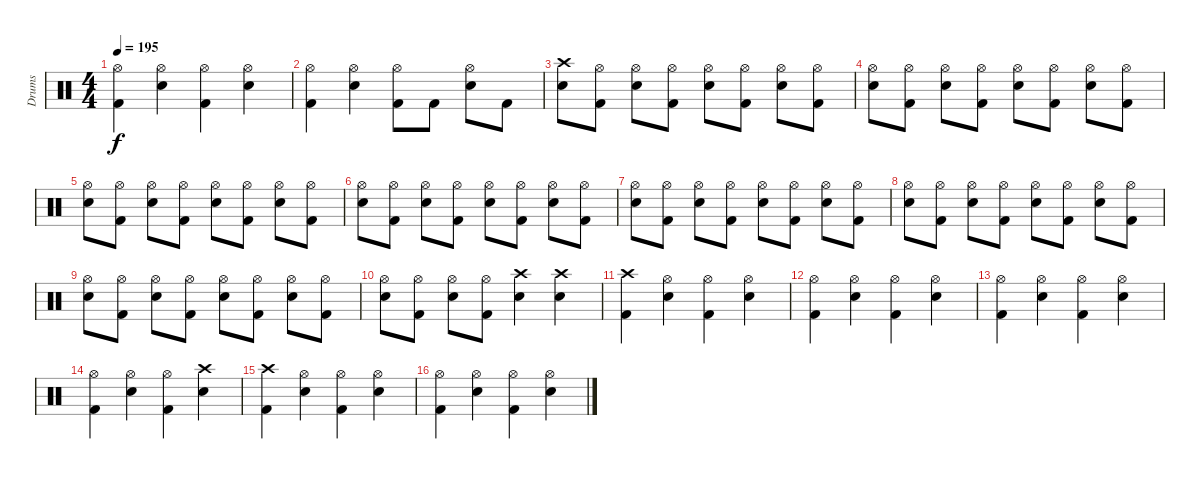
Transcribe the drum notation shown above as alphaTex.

\track ("Drums" "Drums") {instrument percussion}
\staff {score}
\articulation defaults
\ts (4 4)
\tempo 195
\clef neutral
\ks c
("Hi-Hat (open)" "Kick (hit) 2").4{dy f} ("Hi-Hat (open)" "Snare (hit) 2").4 ("Hi-Hat (open)" "Kick (hit) 2").4 ("Hi-Hat (open)" "Snare (hit) 2").4 |
("Hi-Hat (open)" "Kick (hit) 2").4 ("Hi-Hat (open)" "Snare (hit) 2").4 ("Hi-Hat (open)" "Kick (hit) 2").8 "Kick (hit) 2".8 ("Hi-Hat (open)" "Snare (hit) 2").8 "Kick (hit) 2".8 |
("Crash high (hit)" "Snare (hit) 2").8 ("Hi-Hat (open)" "Kick (hit) 2").8 ("Hi-Hat (open)" "Snare (hit) 2").8 ("Hi-Hat (open)" "Kick (hit) 2").8 ("Hi-Hat (open)" "Snare (hit) 2").8 ("Hi-Hat (open)" "Kick (hit) 2").8 ("Hi-Hat (open)" "Snare (hit) 2").8 ("Hi-Hat (open)" "Kick (hit) 2").8 |
("Hi-Hat (open)" "Snare (hit) 2").8 ("Hi-Hat (open)" "Kick (hit) 2").8 ("Hi-Hat (open)" "Snare (hit) 2").8 ("Hi-Hat (open)" "Kick (hit) 2").8 ("Hi-Hat (open)" "Snare (hit) 2").8 ("Hi-Hat (open)" "Kick (hit) 2").8 ("Hi-Hat (open)" "Snare (hit) 2").8 ("Hi-Hat (open)" "Kick (hit) 2").8 |
("Hi-Hat (open)" "Snare (hit) 2").8 ("Hi-Hat (open)" "Kick (hit) 2").8 ("Hi-Hat (open)" "Snare (hit) 2").8 ("Hi-Hat (open)" "Kick (hit) 2").8 ("Hi-Hat (open)" "Snare (hit) 2").8 ("Hi-Hat (open)" "Kick (hit) 2").8 ("Hi-Hat (open)" "Snare (hit) 2").8 ("Hi-Hat (open)" "Kick (hit) 2").8 |
("Hi-Hat (open)" "Snare (hit) 2").8 ("Hi-Hat (open)" "Kick (hit) 2").8 ("Hi-Hat (open)" "Snare (hit) 2").8 ("Hi-Hat (open)" "Kick (hit) 2").8 ("Hi-Hat (open)" "Snare (hit) 2").8 ("Hi-Hat (open)" "Kick (hit) 2").8 ("Hi-Hat (open)" "Snare (hit) 2").8 ("Hi-Hat (open)" "Kick (hit) 2").8 |
("Hi-Hat (open)" "Snare (hit) 2").8 ("Hi-Hat (open)" "Kick (hit) 2").8 ("Hi-Hat (open)" "Snare (hit) 2").8 ("Hi-Hat (open)" "Kick (hit) 2").8 ("Hi-Hat (open)" "Snare (hit) 2").8 ("Hi-Hat (open)" "Kick (hit) 2").8 ("Hi-Hat (open)" "Snare (hit) 2").8 ("Hi-Hat (open)" "Kick (hit) 2").8 |
("Hi-Hat (open)" "Snare (hit) 2").8 ("Hi-Hat (open)" "Kick (hit) 2").8 ("Hi-Hat (open)" "Snare (hit) 2").8 ("Hi-Hat (open)" "Kick (hit) 2").8 ("Hi-Hat (open)" "Snare (hit) 2").8 ("Hi-Hat (open)" "Kick (hit) 2").8 ("Hi-Hat (open)" "Snare (hit) 2").8 ("Hi-Hat (open)" "Kick (hit) 2").8 |
("Hi-Hat (open)" "Snare (hit) 2").8 ("Hi-Hat (open)" "Kick (hit) 2").8 ("Hi-Hat (open)" "Snare (hit) 2").8 ("Hi-Hat (open)" "Kick (hit) 2").8 ("Hi-Hat (open)" "Snare (hit) 2").8 ("Hi-Hat (open)" "Kick (hit) 2").8 ("Hi-Hat (open)" "Snare (hit) 2").8 ("Hi-Hat (open)" "Kick (hit) 2").8 |
("Hi-Hat (open)" "Snare (hit) 2").8 ("Hi-Hat (open)" "Kick (hit) 2").8 ("Hi-Hat (open)" "Snare (hit) 2").8 ("Hi-Hat (open)" "Kick (hit) 2").8 ("Crash high (hit)" "Snare (hit) 2").4 ("Crash high (hit)" "Snare (hit) 2").4 |
("Crash high (hit)" "Kick (hit) 2").4 ("Hi-Hat (open)" "Snare (hit) 2").4 ("Hi-Hat (open)" "Kick (hit) 2").4 ("Hi-Hat (open)" "Snare (hit) 2").4 |
("Hi-Hat (open)" "Kick (hit) 2").4 ("Hi-Hat (open)" "Snare (hit) 2").4 ("Hi-Hat (open)" "Kick (hit) 2").4 ("Hi-Hat (open)" "Snare (hit) 2").4 |
("Hi-Hat (open)" "Kick (hit) 2").4 ("Hi-Hat (open)" "Snare (hit) 2").4 ("Hi-Hat (open)" "Kick (hit) 2").4 ("Hi-Hat (open)" "Snare (hit) 2").4 |
("Hi-Hat (open)" "Kick (hit) 2").4 ("Hi-Hat (open)" "Snare (hit) 2").4 ("Hi-Hat (open)" "Kick (hit) 2").4 ("Crash high (hit)" "Snare (hit) 2").4 |
("Crash high (hit)" "Kick (hit) 2").4 ("Hi-Hat (open)" "Snare (hit) 2").4 ("Hi-Hat (open)" "Kick (hit) 2").4 ("Hi-Hat (open)" "Snare (hit) 2").4 |
("Hi-Hat (open)" "Kick (hit) 2").4 ("Hi-Hat (open)" "Snare (hit) 2").4 ("Hi-Hat (open)" "Kick (hit) 2").4 ("Hi-Hat (open)" "Snare (hit) 2").4
